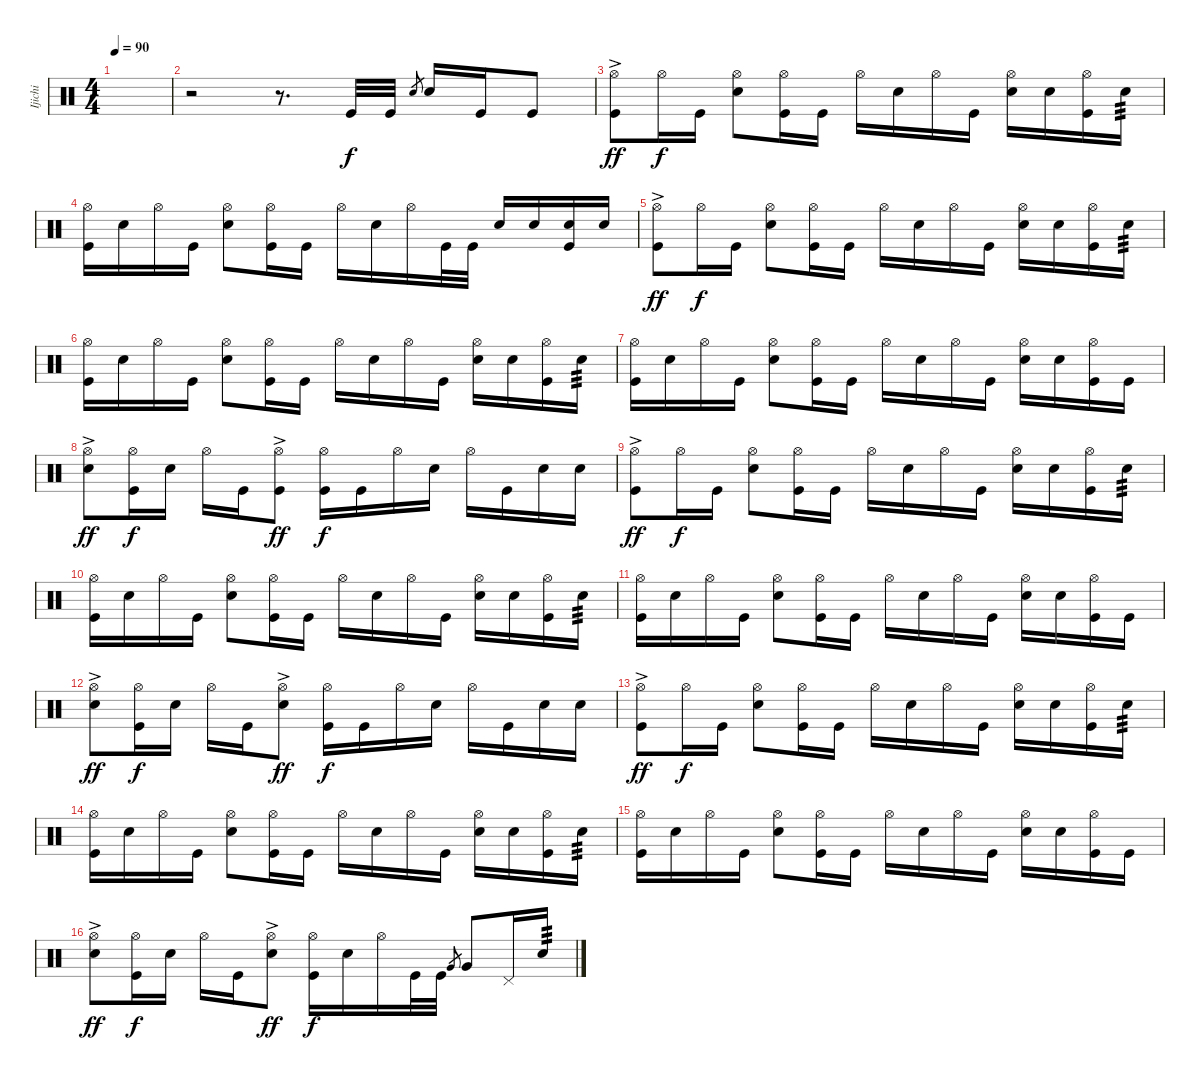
\track ("Ijichi" "Ijichi") {instrument percussion}
\staff {score}
\articulation defaults
\ts (4 4)
\tempo 90
\clef neutral
\ks c
|
r.2 r.8{d} "Kick (hit)".32 "Kick (hit)".32 "Snare (hit) 2".8{gr} "Snare (hit) 2".16 "Kick (hit)".16 "Kick (hit)".8 |
("Hi-Hat (open)"{ac} "Kick (hit)").8{dy ff} "Hi-Hat (open)".16{dy f} "Kick (hit)".16 ("Hi-Hat (open)" "Snare (hit) 2").8 ("Hi-Hat (open)" "Kick (hit)").16 "Kick (hit)".16 "Hi-Hat (open)".16 "Snare (hit) 2".16 "Hi-Hat (open)".16 "Kick (hit)".16 ("Hi-Hat (open)" "Snare (hit) 2").16 "Snare (hit) 2".16 ("Hi-Hat (open)" "Kick (hit)").16 "Snare (hit) 2".16{tp 3} |
("Hi-Hat (open)" "Kick (hit)").16 "Snare (hit) 2".16 "Hi-Hat (open)".16 "Kick (hit)".16 ("Hi-Hat (open)" "Snare (hit) 2").8 ("Hi-Hat (open)" "Kick (hit)").16 "Kick (hit)".16 "Hi-Hat (open)".16 "Snare (hit) 2".16 "Hi-Hat (open)".16 "Kick (hit)".32 "Kick (hit)".32 "Snare (hit) 2".16 "Snare (hit) 2".16 ("Snare (hit) 2" "Kick (hit)").16 "Snare (hit) 2".16 |
("Hi-Hat (open)"{ac} "Kick (hit)").8{dy ff} "Hi-Hat (open)".16{dy f} "Kick (hit)".16 ("Hi-Hat (open)" "Snare (hit) 2").8 ("Hi-Hat (open)" "Kick (hit)").16 "Kick (hit)".16 "Hi-Hat (open)".16 "Snare (hit) 2".16 "Hi-Hat (open)".16 "Kick (hit)".16 ("Hi-Hat (open)" "Snare (hit) 2").16 "Snare (hit) 2".16 ("Hi-Hat (open)" "Kick (hit)").16 "Snare (hit) 2".16{tp 3} |
("Hi-Hat (open)" "Kick (hit)").16 "Snare (hit) 2".16 "Hi-Hat (open)".16 "Kick (hit)".16 ("Hi-Hat (open)" "Snare (hit) 2").8 ("Hi-Hat (open)" "Kick (hit)").16 "Kick (hit)".16 "Hi-Hat (open)".16 "Snare (hit) 2".16 "Hi-Hat (open)".16 "Kick (hit)".16 ("Hi-Hat (open)" "Snare (hit) 2").16 "Snare (hit) 2".16 ("Hi-Hat (open)" "Kick (hit)").16 "Snare (hit) 2".16{tp 3} |
("Hi-Hat (open)" "Kick (hit)").16 "Snare (hit) 2".16 "Hi-Hat (open)".16 "Kick (hit)".16 ("Hi-Hat (open)" "Snare (hit) 2").8 ("Hi-Hat (open)" "Kick (hit)").16 "Kick (hit)".16 "Hi-Hat (open)".16 "Snare (hit) 2".16 "Hi-Hat (open)".16 "Kick (hit)".16 ("Hi-Hat (open)" "Snare (hit) 2").16 "Snare (hit) 2".16 ("Hi-Hat (open)" "Kick (hit)").16 "Kick (hit)".16 |
("Hi-Hat (open)"{ac} "Snare (hit) 2").8{dy ff} ("Hi-Hat (open)" "Kick (hit)").16{dy f} "Snare (hit) 2".16 "Hi-Hat (open)".16 "Kick (hit)".16 ("Hi-Hat (open)"{ac} "Kick (hit)").8{dy ff} ("Hi-Hat (open)" "Kick (hit)").16{dy f} "Kick (hit)".16 "Hi-Hat (open)".16 "Snare (hit) 2".16 "Hi-Hat (open)".16 "Kick (hit)".16 "Snare (hit) 2".16 "Snare (hit) 2".16 |
("Hi-Hat (open)"{ac} "Kick (hit)").8{dy ff} "Hi-Hat (open)".16{dy f} "Kick (hit)".16 ("Hi-Hat (open)" "Snare (hit) 2").8 ("Hi-Hat (open)" "Kick (hit)").16 "Kick (hit)".16 "Hi-Hat (open)".16 "Snare (hit) 2".16 "Hi-Hat (open)".16 "Kick (hit)".16 ("Hi-Hat (open)" "Snare (hit) 2").16 "Snare (hit) 2".16 ("Hi-Hat (open)" "Kick (hit)").16 "Snare (hit) 2".16{tp 3} |
("Hi-Hat (open)" "Kick (hit)").16 "Snare (hit) 2".16 "Hi-Hat (open)".16 "Kick (hit)".16 ("Hi-Hat (open)" "Snare (hit) 2").8 ("Hi-Hat (open)" "Kick (hit)").16 "Kick (hit)".16 "Hi-Hat (open)".16 "Snare (hit) 2".16 "Hi-Hat (open)".16 "Kick (hit)".16 ("Hi-Hat (open)" "Snare (hit) 2").16 "Snare (hit) 2".16 ("Hi-Hat (open)" "Kick (hit)").16 "Snare (hit) 2".16{tp 3} |
("Hi-Hat (open)" "Kick (hit)").16 "Snare (hit) 2".16 "Hi-Hat (open)".16 "Kick (hit)".16 ("Hi-Hat (open)" "Snare (hit) 2").8 ("Hi-Hat (open)" "Kick (hit)").16 "Kick (hit)".16 "Hi-Hat (open)".16 "Snare (hit) 2".16 "Hi-Hat (open)".16 "Kick (hit)".16 ("Hi-Hat (open)" "Snare (hit) 2").16 "Snare (hit) 2".16 ("Hi-Hat (open)" "Kick (hit)").16 "Kick (hit)".16 |
("Hi-Hat (open)"{ac} "Snare (hit) 2").8{dy ff} ("Hi-Hat (open)" "Kick (hit)").16{dy f} "Snare (hit) 2".16 "Hi-Hat (open)".16 "Kick (hit)".16 ("Hi-Hat (open)"{ac} "Snare (hit) 2").8{dy ff} ("Hi-Hat (open)" "Kick (hit)").16{dy f} "Kick (hit)".16 "Hi-Hat (open)".16 "Snare (hit) 2".16 "Hi-Hat (open)".16 "Kick (hit)".16 "Snare (hit) 2".16 "Snare (hit) 2".16 |
("Hi-Hat (open)"{ac} "Kick (hit)").8{dy ff} "Hi-Hat (open)".16{dy f} "Kick (hit)".16 ("Hi-Hat (open)" "Snare (hit) 2").8 ("Hi-Hat (open)" "Kick (hit)").16 "Kick (hit)".16 "Hi-Hat (open)".16 "Snare (hit) 2".16 "Hi-Hat (open)".16 "Kick (hit)".16 ("Hi-Hat (open)" "Snare (hit) 2").16 "Snare (hit) 2".16 ("Hi-Hat (open)" "Kick (hit)").16 "Snare (hit) 2".16{tp 3} |
("Hi-Hat (open)" "Kick (hit)").16 "Snare (hit) 2".16 "Hi-Hat (open)".16 "Kick (hit)".16 ("Hi-Hat (open)" "Snare (hit) 2").8 ("Hi-Hat (open)" "Kick (hit)").16 "Kick (hit)".16 "Hi-Hat (open)".16 "Snare (hit) 2".16 "Hi-Hat (open)".16 "Kick (hit)".16 ("Hi-Hat (open)" "Snare (hit) 2").16 "Snare (hit) 2".16 ("Hi-Hat (open)" "Kick (hit)").16 "Snare (hit) 2".16{tp 3} |
("Hi-Hat (open)" "Kick (hit)").16 "Snare (hit) 2".16 "Hi-Hat (open)".16 "Kick (hit)".16 ("Hi-Hat (open)" "Snare (hit) 2").8 ("Hi-Hat (open)" "Kick (hit)").16 "Kick (hit)".16 "Hi-Hat (open)".16 "Snare (hit) 2".16 "Hi-Hat (open)".16 "Kick (hit)".16 ("Hi-Hat (open)" "Snare (hit) 2").16 "Snare (hit) 2".16 ("Hi-Hat (open)" "Kick (hit)").16 "Kick (hit)".16 |
("Hi-Hat (open)"{ac} "Snare (hit) 2").8{dy ff} ("Hi-Hat (open)" "Kick (hit)").16{dy f} "Snare (hit) 2".16 "Hi-Hat (open)".16 "Kick (hit)".16 ("Hi-Hat (open)"{ac} "Snare (hit) 2").8{dy ff} ("Hi-Hat (open)" "Kick (hit)").16{dy f} "Snare (hit) 2".16 "Hi-Hat (open)".16 "Kick (hit)".32 "Kick (hit)".32 "Very Low Tom (hit)".8{gr} "Very Low Tom (hit)".8 "Pedal Hi-Hat (hit)".16 "Snare (hit) 2".16{tp 3}
